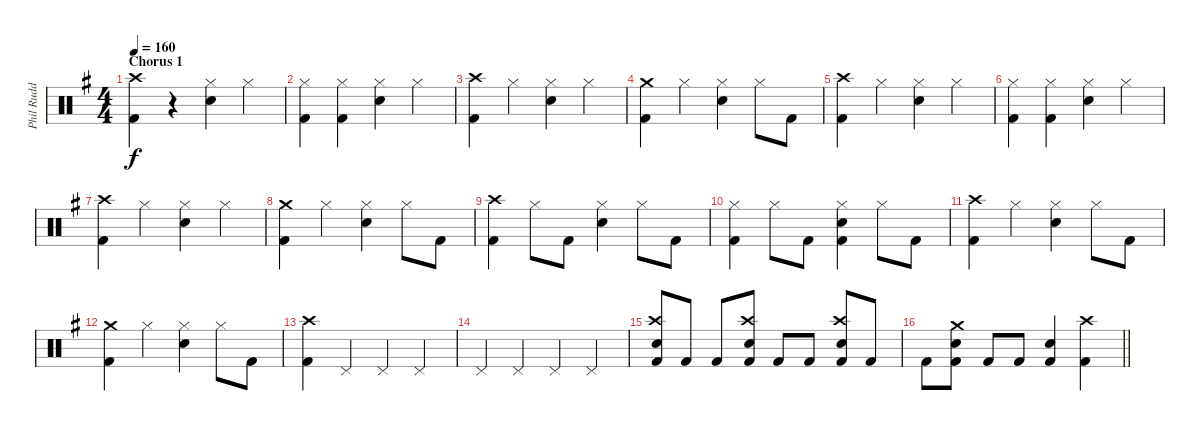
\track ("Phil Rudd" "Phil Rudd") {instrument percussion}
\staff {score}
\articulation defaults
\ts (4 4)
\section ("" "Chorus 1")
\tempo 160
\clef neutral
\ks g
("Kick (hit) 2" "Crash high (hit)").4{dy f} r.4 ("Snare (hit) 2" "Hi-Hat (closed)").4 "Hi-Hat (closed)".4 |
("Kick (hit) 2" "Hi-Hat (closed)").4 ("Hi-Hat (closed)" "Kick (hit) 2").4 ("Snare (hit) 2" "Hi-Hat (closed)").4 "Hi-Hat (closed)".4 |
("Kick (hit) 2" "Crash high (hit)").4 "Hi-Hat (closed)".4 ("Snare (hit) 2" "Hi-Hat (closed)").4 "Hi-Hat (closed)".4 |
("Kick (hit) 2" "Crash medium (hit)").4 "Hi-Hat (closed)".4 ("Hi-Hat (closed)" "Snare (hit) 2").4 "Hi-Hat (closed)".8 "Kick (hit) 2".8 |
("Crash high (hit)" "Kick (hit) 2").4 "Hi-Hat (closed)".4 ("Hi-Hat (closed)" "Snare (hit) 2").4 "Hi-Hat (closed)".4 |
("Kick (hit) 2" "Hi-Hat (closed)").4 ("Hi-Hat (closed)" "Kick (hit) 2").4 ("Hi-Hat (closed)" "Snare (hit) 2").4 "Hi-Hat (closed)".4 |
("Kick (hit) 2" "Crash high (hit)").4 "Hi-Hat (closed)".4 ("Snare (hit) 2" "Hi-Hat (closed)").4 "Hi-Hat (closed)".4 |
("Crash medium (hit)" "Kick (hit) 2").4 "Hi-Hat (closed)".4 ("Hi-Hat (closed)" "Snare (hit) 2").4 "Hi-Hat (closed)".8 "Kick (hit) 2".8 |
("Kick (hit) 2" "Crash high (hit)").4 "Hi-Hat (closed)".8 "Kick (hit) 2".8 ("Snare (hit) 2" "Hi-Hat (closed)").4 "Hi-Hat (closed)".8 "Kick (hit) 2".8 |
("Hi-Hat (closed)" "Kick (hit) 2").4 "Hi-Hat (closed)".8 "Kick (hit) 2".8 ("Kick (hit) 2" "Snare (hit) 2" "Hi-Hat (closed)").4 "Hi-Hat (closed)".8 "Kick (hit) 2".8 |
("Crash high (hit)" "Kick (hit) 2").4 "Hi-Hat (closed)".4 ("Snare (hit) 2" "Hi-Hat (closed)").4 "Hi-Hat (closed)".8 "Kick (hit) 2".8 |
("Crash medium (hit)" "Kick (hit) 2").4 "Hi-Hat (closed)".4 ("Snare (hit) 2" "Hi-Hat (closed)").4 "Hi-Hat (closed)".8 "Kick (hit) 2".8 |
("Crash high (hit)" "Kick (hit) 2").4 "Pedal Hi-Hat (hit)".4 "Pedal Hi-Hat (hit)".4 "Pedal Hi-Hat (hit)".4 |
"Pedal Hi-Hat (hit)".4 "Pedal Hi-Hat (hit)".4 "Pedal Hi-Hat (hit)".4 "Pedal Hi-Hat (hit)".4 |
("Crash high (hit)" "Snare (hit) 2" "Kick (hit) 2").8 "Kick (hit) 2".8 "Kick (hit) 2".8 ("Crash high (hit)" "Snare (hit) 2" "Kick (hit) 2").8 "Kick (hit) 2".8 "Kick (hit) 2".8 ("Snare (hit) 2" "Kick (hit) 2" "Crash high (hit)").8 "Kick (hit) 2".8 |
\barLineRight lightlight "Kick (hit) 2".8
("Kick (hit) 2" "Crash medium (hit)" "Snare (hit) 2").8 "Kick (hit) 2".8 "Kick (hit) 2".8 ("Kick (hit) 2" "Snare (hit) 2").4 ("Kick (hit) 2" "Crash high (hit)").4
